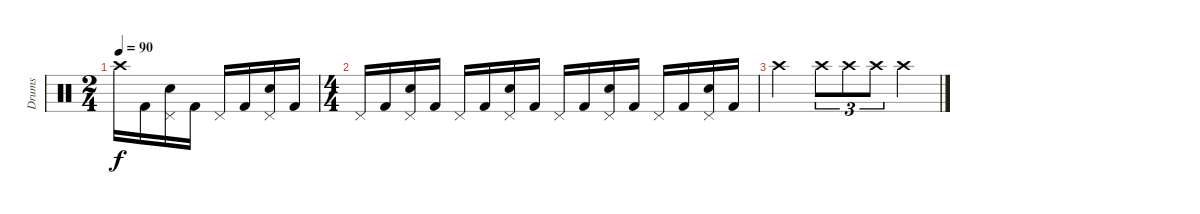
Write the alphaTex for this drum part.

\track ("Drums" "Drums") {instrument percussion}
\staff {score}
\articulation defaults
\ts (2 4)
\tempo 90
\clef neutral
\ks c "Crash high (hit)".16{dy f} "Kick (hit) 2".16
("Pedal Hi-Hat (hit)" "Snare (hit) 2").16 "Kick (hit) 2".16 "Pedal Hi-Hat (hit)".16 "Kick (hit) 2".16 ("Pedal Hi-Hat (hit)" "Snare (hit) 2").16 "Kick (hit) 2".16 |
\ts (4 4)
"Pedal Hi-Hat (hit)".16 "Kick (hit) 2".16 ("Pedal Hi-Hat (hit)" "Snare (hit) 2").16 "Kick (hit) 2".16 "Pedal Hi-Hat (hit)".16 "Kick (hit) 2".16 ("Pedal Hi-Hat (hit)" "Snare (hit) 2").16 "Kick (hit) 2".16 "Pedal Hi-Hat (hit)".16 "Kick (hit) 2".16 ("Pedal Hi-Hat (hit)" "Snare (hit) 2").16 "Kick (hit) 2".16 "Pedal Hi-Hat (hit)".16 "Kick (hit) 2".16 ("Pedal Hi-Hat (hit)" "Snare (hit) 2").16 "Kick (hit) 2".16 |
"Crash high (hit)".2 "Crash high (hit)".8{tu (3 2)} "Crash high (hit)".8{tu (3 2)} "Crash high (hit)".8{tu (3 2)} "Crash high (hit)".4
